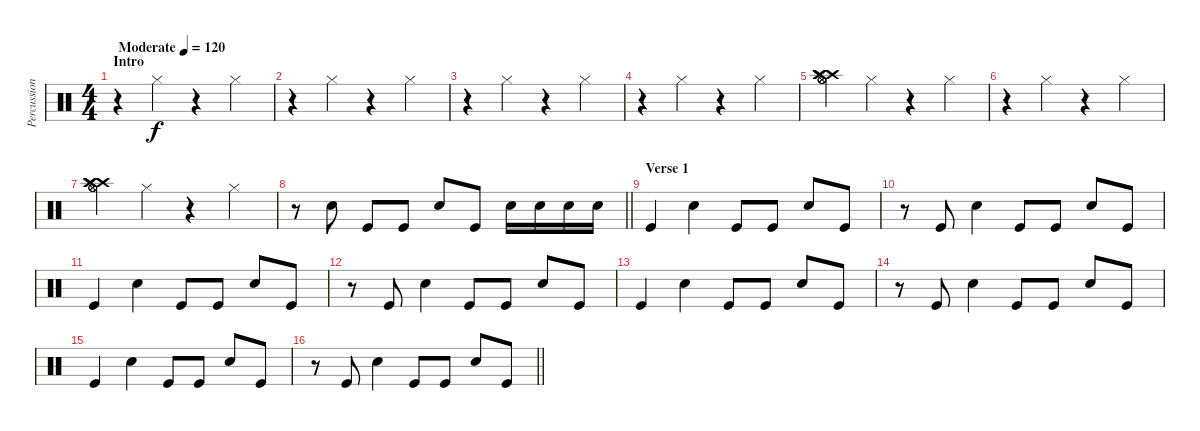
\track ("Percussion" "Percussion") {instrument percussion}
\staff {score}
\articulation defaults
\ts (4 4)
\section ("" "Intro")
\tempo (120 "Moderate")
\clef neutral
\ks c
r.4{dy f} "Hi-Hat (closed)".4 r.4 "Hi-Hat (closed)".4 |
r.4 "Hi-Hat (closed)".4 r.4 "Hi-Hat (closed)".4 |
r.4 "Hi-Hat (closed)".4 r.4 "Hi-Hat (closed)".4 |
r.4 "Hi-Hat (closed)".4 r.4 "Hi-Hat (closed)".4 |
("Crash high (hit)" "Hi-Hat (open)" "Crash high (hit)" "Hi-Hat (open)" "Crash high (hit)" "Hi-Hat (open)").4 "Hi-Hat (closed)".4 r.4 "Hi-Hat (closed)".4 |
r.4 "Hi-Hat (closed)".4 r.4 "Hi-Hat (closed)".4 |
("Crash high (hit)" "Hi-Hat (open)" "Crash high (hit)" "Hi-Hat (open)" "Crash high (hit)" "Hi-Hat (open)").4 "Hi-Hat (closed)".4 r.4 "Hi-Hat (closed)".4 |
\barLineRight lightlight
r.8 "Snare (hit) 2".8 "Kick (hit)".8 "Kick (hit)".8 "Snare (hit) 2".8 "Kick (hit)".8 "Snare (hit) 2".16 "Snare (hit) 2".16 "Snare (hit) 2".16 "Snare (hit) 2".16 |
\section ("" "Verse 1")
"Kick (hit)".4 "Snare (hit) 2".4 "Kick (hit)".8 "Kick (hit)".8 "Snare (hit) 2".8 "Kick (hit)".8 |
r.8 "Kick (hit)".8 "Snare (hit) 2".4 "Kick (hit)".8 "Kick (hit)".8 "Snare (hit) 2".8 "Kick (hit)".8 |
"Kick (hit)".4 "Snare (hit) 2".4 "Kick (hit)".8 "Kick (hit)".8 "Snare (hit) 2".8 "Kick (hit)".8 |
r.8 "Kick (hit)".8 "Snare (hit) 2".4 "Kick (hit)".8 "Kick (hit)".8 "Snare (hit) 2".8 "Kick (hit)".8 |
"Kick (hit)".4 "Snare (hit) 2".4 "Kick (hit)".8 "Kick (hit)".8 "Snare (hit) 2".8 "Kick (hit)".8 |
r.8 "Kick (hit)".8 "Snare (hit) 2".4 "Kick (hit)".8 "Kick (hit)".8 "Snare (hit) 2".8 "Kick (hit)".8 |
"Kick (hit)".4 "Snare (hit) 2".4 "Kick (hit)".8 "Kick (hit)".8 "Snare (hit) 2".8 "Kick (hit)".8 |
\barLineRight lightlight
r.8 "Kick (hit)".8 "Snare (hit) 2".4 "Kick (hit)".8 "Kick (hit)".8 "Snare (hit) 2".8 "Kick (hit)".8
